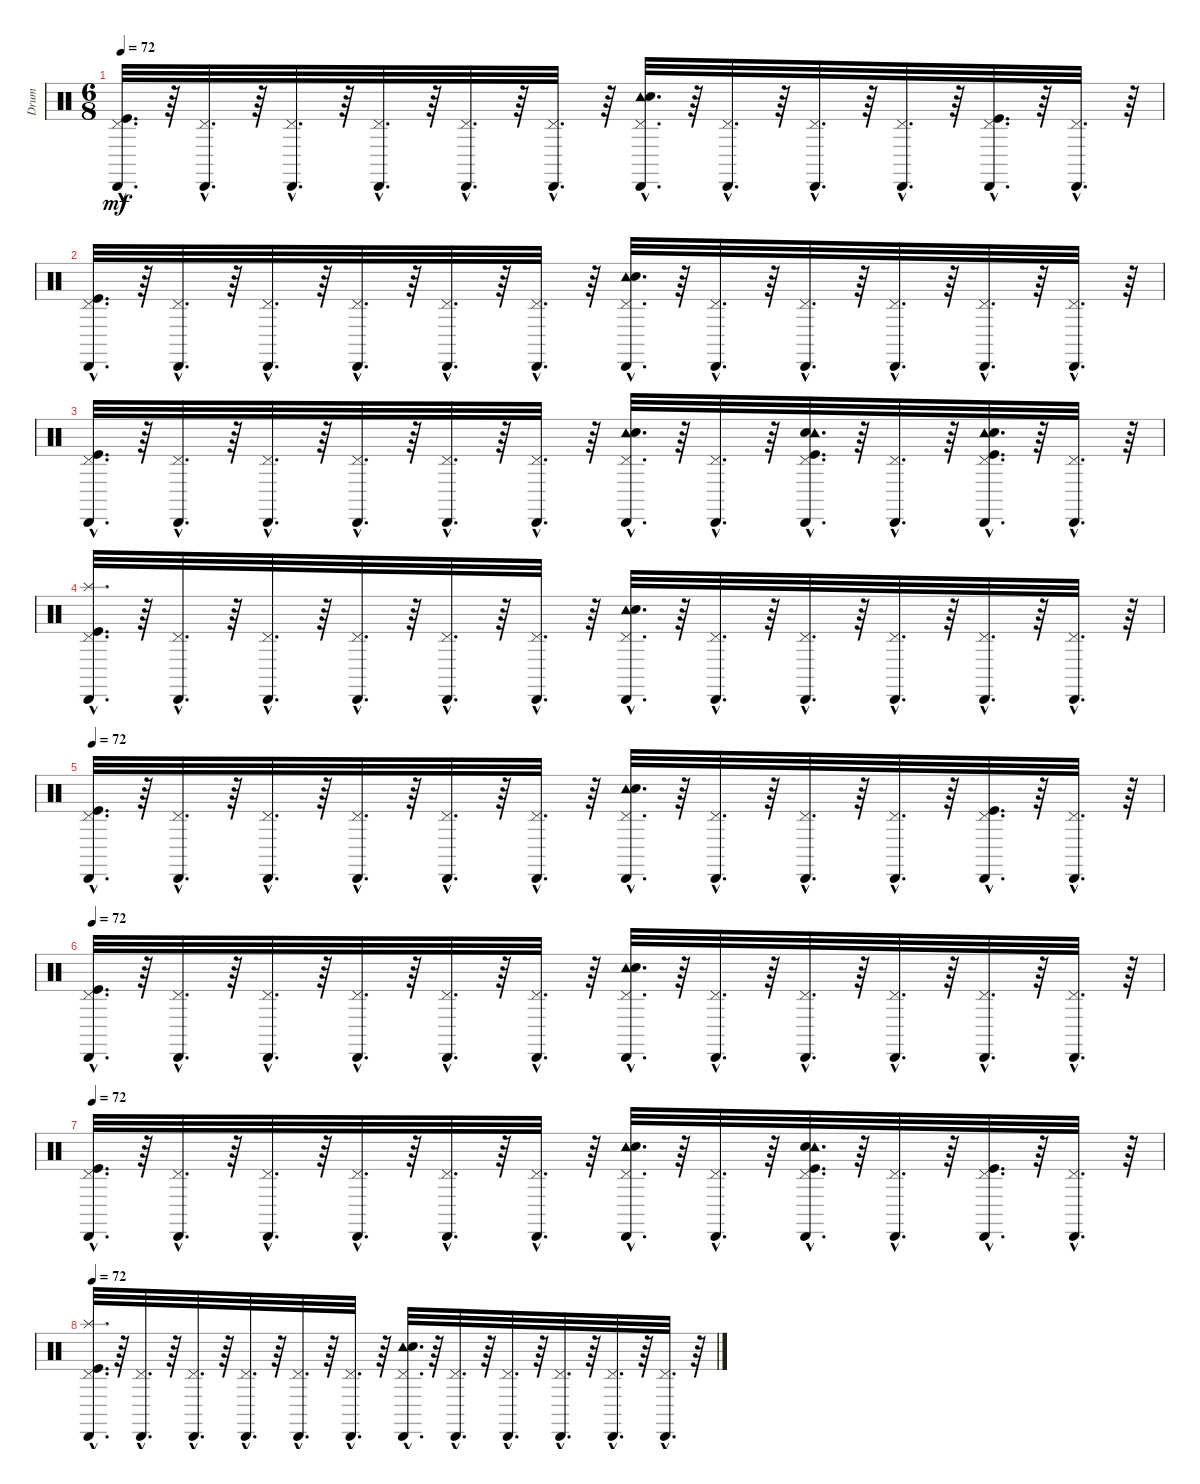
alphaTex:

\track ("Drum" "Drum") {instrument percussion}
\staff {score}
\articulation defaults
\ts (6 8)
\tempo 72
\clef neutral
\ks c
("Cabasa (hit)"{hac} "Pedal Hi-Hat (hit)"{hac} "Kick (hit)"{hac}).32{d dy mf} r.64 ("Cabasa (hit)"{hac} "Pedal Hi-Hat (hit)"{hac}).32{d} r.64 ("Cabasa (hit)"{hac} "Pedal Hi-Hat (hit)"{hac}).32{d} r.64 ("Cabasa (hit)"{hac} "Pedal Hi-Hat (hit)"{hac}).32{d} r.64 ("Cabasa (hit)"{hac} "Pedal Hi-Hat (hit)"{hac}).32{d} r.64 ("Cabasa (hit)"{hac} "Pedal Hi-Hat (hit)"{hac}).32{d} r.64 ("Cabasa (hit)"{hac} "Pedal Hi-Hat (hit)"{hac} "Tambourine (hit)"{hac} "Electric Snare (hit)"{hac}).32{d} r.64 ("Cabasa (hit)"{hac} "Pedal Hi-Hat (hit)"{hac}).32{d} r.64 ("Cabasa (hit)"{hac} "Pedal Hi-Hat (hit)"{hac}).32{d} r.64 ("Cabasa (hit)"{hac} "Pedal Hi-Hat (hit)"{hac}).32{d} r.64 ("Kick (hit)"{hac} "Cabasa (hit)"{hac} "Pedal Hi-Hat (hit)"{hac}).32{d} r.64 ("Cabasa (hit)"{hac} "Pedal Hi-Hat (hit)"{hac}).32{d} r.64 |
("Cabasa (hit)"{hac} "Pedal Hi-Hat (hit)"{hac} "Kick (hit)"{hac}).32{d} r.64 ("Cabasa (hit)"{hac} "Pedal Hi-Hat (hit)"{hac}).32{d} r.64 ("Cabasa (hit)"{hac} "Pedal Hi-Hat (hit)"{hac}).32{d} r.64 ("Cabasa (hit)"{hac} "Pedal Hi-Hat (hit)"{hac}).32{d} r.64 ("Cabasa (hit)"{hac} "Pedal Hi-Hat (hit)"{hac}).32{d} r.64 ("Cabasa (hit)"{hac} "Pedal Hi-Hat (hit)"{hac}).32{d} r.64 ("Cabasa (hit)"{hac} "Pedal Hi-Hat (hit)"{hac} "Tambourine (hit)"{hac} "Electric Snare (hit)"{hac}).32{d} r.64 ("Cabasa (hit)"{hac} "Pedal Hi-Hat (hit)"{hac}).32{d} r.64 ("Cabasa (hit)"{hac} "Pedal Hi-Hat (hit)"{hac}).32{d} r.64 ("Cabasa (hit)"{hac} "Pedal Hi-Hat (hit)"{hac}).32{d} r.64 ("Cabasa (hit)"{hac} "Pedal Hi-Hat (hit)"{hac}).32{d} r.64 ("Cabasa (hit)"{hac} "Pedal Hi-Hat (hit)"{hac}).32{d} r.64 |
("Cabasa (hit)"{hac} "Pedal Hi-Hat (hit)"{hac} "Kick (hit)"{hac}).32{d} r.64 ("Cabasa (hit)"{hac} "Pedal Hi-Hat (hit)"{hac}).32{d} r.64 ("Cabasa (hit)"{hac} "Pedal Hi-Hat (hit)"{hac}).32{d} r.64 ("Cabasa (hit)"{hac} "Pedal Hi-Hat (hit)"{hac}).32{d} r.64 ("Cabasa (hit)"{hac} "Pedal Hi-Hat (hit)"{hac}).32{d} r.64 ("Cabasa (hit)"{hac} "Pedal Hi-Hat (hit)"{hac}).32{d} r.64 ("Cabasa (hit)"{hac} "Pedal Hi-Hat (hit)"{hac} "Tambourine (hit)"{hac} "Electric Snare (hit)"{hac}).32{d} r.64 ("Cabasa (hit)"{hac} "Pedal Hi-Hat (hit)"{hac}).32{d} r.64 ("Kick (hit)"{hac} "Electric Snare (hit)"{hac} "Tambourine (hit)"{hac} "Cabasa (hit)"{hac} "Pedal Hi-Hat (hit)"{hac}).32{d} r.64 ("Cabasa (hit)"{hac} "Pedal Hi-Hat (hit)"{hac}).32{d} r.64 ("Kick (hit)"{hac} "Cabasa (hit)"{hac} "Pedal Hi-Hat (hit)"{hac} "Tambourine (hit)"{hac} "Electric Snare (hit)"{hac}).32{d} r.64 ("Cabasa (hit)"{hac} "Pedal Hi-Hat (hit)"{hac}).32{d} r.64 |
("Splash (hit)"{hac} "Cabasa (hit)"{hac} "Pedal Hi-Hat (hit)"{hac} "Kick (hit)"{hac}).32{d} r.64 ("Cabasa (hit)"{hac} "Pedal Hi-Hat (hit)"{hac}).32{d} r.64 ("Cabasa (hit)"{hac} "Pedal Hi-Hat (hit)"{hac}).32{d} r.64 ("Cabasa (hit)"{hac} "Pedal Hi-Hat (hit)"{hac}).32{d} r.64 ("Cabasa (hit)"{hac} "Pedal Hi-Hat (hit)"{hac}).32{d} r.64 ("Cabasa (hit)"{hac} "Pedal Hi-Hat (hit)"{hac}).32{d} r.64 ("Cabasa (hit)"{hac} "Pedal Hi-Hat (hit)"{hac} "Tambourine (hit)"{hac} "Electric Snare (hit)"{hac}).32{d} r.64 ("Cabasa (hit)"{hac} "Pedal Hi-Hat (hit)"{hac}).32{d} r.64 ("Cabasa (hit)"{hac} "Pedal Hi-Hat (hit)"{hac}).32{d} r.64 ("Cabasa (hit)"{hac} "Pedal Hi-Hat (hit)"{hac}).32{d} r.64 ("Cabasa (hit)"{hac} "Pedal Hi-Hat (hit)"{hac}).32{d} r.64 ("Cabasa (hit)"{hac} "Pedal Hi-Hat (hit)"{hac}).32{d} r.64 |
\tempo 72
("Cabasa (hit)"{hac} "Pedal Hi-Hat (hit)"{hac} "Kick (hit)"{hac}).32{d} r.64 ("Cabasa (hit)"{hac} "Pedal Hi-Hat (hit)"{hac}).32{d} r.64 ("Cabasa (hit)"{hac} "Pedal Hi-Hat (hit)"{hac}).32{d} r.64 ("Cabasa (hit)"{hac} "Pedal Hi-Hat (hit)"{hac}).32{d} r.64 ("Cabasa (hit)"{hac} "Pedal Hi-Hat (hit)"{hac}).32{d} r.64 ("Cabasa (hit)"{hac} "Pedal Hi-Hat (hit)"{hac}).32{d} r.64 ("Cabasa (hit)"{hac} "Pedal Hi-Hat (hit)"{hac} "Tambourine (hit)"{hac} "Electric Snare (hit)"{hac}).32{d} r.64 ("Cabasa (hit)"{hac} "Pedal Hi-Hat (hit)"{hac}).32{d} r.64 ("Cabasa (hit)"{hac} "Pedal Hi-Hat (hit)"{hac}).32{d} r.64 ("Cabasa (hit)"{hac} "Pedal Hi-Hat (hit)"{hac}).32{d} r.64 ("Kick (hit)"{hac} "Cabasa (hit)"{hac} "Pedal Hi-Hat (hit)"{hac}).32{d} r.64 ("Cabasa (hit)"{hac} "Pedal Hi-Hat (hit)"{hac}).32{d} r.64 |
\tempo 72
("Cabasa (hit)"{hac} "Pedal Hi-Hat (hit)"{hac} "Kick (hit)"{hac}).32{d} r.64 ("Cabasa (hit)"{hac} "Pedal Hi-Hat (hit)"{hac}).32{d} r.64 ("Cabasa (hit)"{hac} "Pedal Hi-Hat (hit)"{hac}).32{d} r.64 ("Cabasa (hit)"{hac} "Pedal Hi-Hat (hit)"{hac}).32{d} r.64 ("Cabasa (hit)"{hac} "Pedal Hi-Hat (hit)"{hac}).32{d} r.64 ("Cabasa (hit)"{hac} "Pedal Hi-Hat (hit)"{hac}).32{d} r.64 ("Cabasa (hit)"{hac} "Pedal Hi-Hat (hit)"{hac} "Tambourine (hit)"{hac} "Electric Snare (hit)"{hac}).32{d} r.64 ("Cabasa (hit)"{hac} "Pedal Hi-Hat (hit)"{hac}).32{d} r.64 ("Cabasa (hit)"{hac} "Pedal Hi-Hat (hit)"{hac}).32{d} r.64 ("Cabasa (hit)"{hac} "Pedal Hi-Hat (hit)"{hac}).32{d} r.64 ("Cabasa (hit)"{hac} "Pedal Hi-Hat (hit)"{hac}).32{d} r.64 ("Cabasa (hit)"{hac} "Pedal Hi-Hat (hit)"{hac}).32{d} r.64 |
\tempo 72
("Cabasa (hit)"{hac} "Pedal Hi-Hat (hit)"{hac} "Kick (hit)"{hac}).32{d} r.64 ("Cabasa (hit)"{hac} "Pedal Hi-Hat (hit)"{hac}).32{d} r.64 ("Cabasa (hit)"{hac} "Pedal Hi-Hat (hit)"{hac}).32{d} r.64 ("Cabasa (hit)"{hac} "Pedal Hi-Hat (hit)"{hac}).32{d} r.64 ("Cabasa (hit)"{hac} "Pedal Hi-Hat (hit)"{hac}).32{d} r.64 ("Cabasa (hit)"{hac} "Pedal Hi-Hat (hit)"{hac}).32{d} r.64 ("Cabasa (hit)"{hac} "Pedal Hi-Hat (hit)"{hac} "Tambourine (hit)"{hac} "Electric Snare (hit)"{hac}).32{d} r.64 ("Cabasa (hit)"{hac} "Pedal Hi-Hat (hit)"{hac}).32{d} r.64 ("Kick (hit)"{hac} "Electric Snare (hit)"{hac} "Tambourine (hit)"{hac} "Cabasa (hit)"{hac} "Pedal Hi-Hat (hit)"{hac}).32{d} r.64 ("Cabasa (hit)"{hac} "Pedal Hi-Hat (hit)"{hac}).32{d} r.64 ("Kick (hit)"{hac} "Cabasa (hit)"{hac} "Pedal Hi-Hat (hit)"{hac}).32{d} r.64 ("Cabasa (hit)"{hac} "Pedal Hi-Hat (hit)"{hac}).32{d} r.64 |
\tempo 72
("Splash (hit)"{hac} "Cabasa (hit)"{hac} "Pedal Hi-Hat (hit)"{hac} "Kick (hit)"{hac}).32{d} r.64 ("Cabasa (hit)"{hac} "Pedal Hi-Hat (hit)"{hac}).32{d} r.64 ("Cabasa (hit)"{hac} "Pedal Hi-Hat (hit)"{hac}).32{d} r.64 ("Cabasa (hit)"{hac} "Pedal Hi-Hat (hit)"{hac}).32{d} r.64 ("Cabasa (hit)"{hac} "Pedal Hi-Hat (hit)"{hac}).32{d} r.64 ("Cabasa (hit)"{hac} "Pedal Hi-Hat (hit)"{hac}).32{d} r.64 ("Cabasa (hit)"{hac} "Pedal Hi-Hat (hit)"{hac} "Tambourine (hit)"{hac} "Electric Snare (hit)"{hac}).32{d} r.64 ("Cabasa (hit)"{hac} "Pedal Hi-Hat (hit)"{hac}).32{d} r.64 ("Cabasa (hit)"{hac} "Pedal Hi-Hat (hit)"{hac}).32{d} r.64 ("Cabasa (hit)"{hac} "Pedal Hi-Hat (hit)"{hac}).32{d} r.64 ("Cabasa (hit)"{hac} "Pedal Hi-Hat (hit)"{hac}).32{d} r.64 ("Cabasa (hit)"{hac} "Pedal Hi-Hat (hit)"{hac}).32{d} r.64
